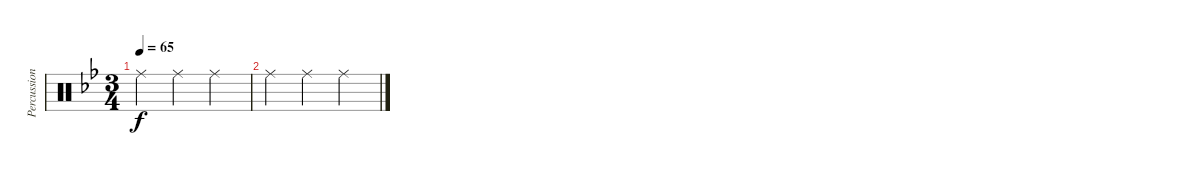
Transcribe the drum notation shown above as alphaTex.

\track ("Percussion" "Percussion") {instrument percussion}
\staff {score}
\articulation defaults
\ts (3 4)
\tempo 65
\clef neutral
\ks gminor "Ride (middle)".4{dy f} "Ride (middle)".4 "Ride (middle)".4
|
"Ride (middle)".4 "Ride (middle)".4 "Ride (middle)".4
